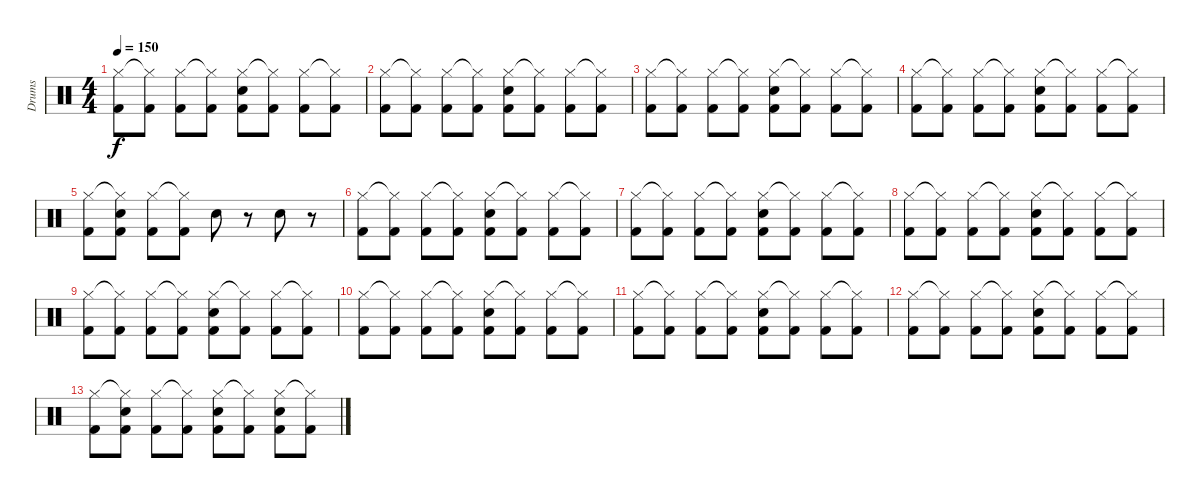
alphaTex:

\track ("Drums" "Drums") {instrument percussion}
\staff {score}
\articulation defaults
\ts (4 4)
\tempo 150
\clef neutral
\ks c
("Hi-Hat (closed)" "Kick (hit) 2").8{dy f} ("Hi-Hat (closed)"{t} "Kick (hit) 2").8 ("Hi-Hat (closed)" "Kick (hit) 2").8 ("Hi-Hat (closed)"{t} "Kick (hit) 2").8 ("Hi-Hat (closed)" "Kick (hit) 2" "Snare (hit) 2").8 ("Hi-Hat (closed)"{t} "Kick (hit) 2").8 ("Hi-Hat (closed)" "Kick (hit) 2").8 ("Hi-Hat (closed)"{t} "Kick (hit) 2").8 |
("Hi-Hat (closed)" "Kick (hit) 2").8 ("Hi-Hat (closed)"{t} "Kick (hit) 2").8 ("Hi-Hat (closed)" "Kick (hit) 2").8 ("Hi-Hat (closed)"{t} "Kick (hit) 2").8 ("Hi-Hat (closed)" "Kick (hit) 2" "Snare (hit) 2").8 ("Hi-Hat (closed)"{t} "Kick (hit) 2").8 ("Hi-Hat (closed)" "Kick (hit) 2").8 ("Hi-Hat (closed)"{t} "Kick (hit) 2").8 |
("Hi-Hat (closed)" "Kick (hit) 2").8 ("Hi-Hat (closed)"{t} "Kick (hit) 2").8 ("Hi-Hat (closed)" "Kick (hit) 2").8 ("Hi-Hat (closed)"{t} "Kick (hit) 2").8 ("Hi-Hat (closed)" "Kick (hit) 2" "Snare (hit) 2").8 ("Hi-Hat (closed)"{t} "Kick (hit) 2").8 ("Hi-Hat (closed)" "Kick (hit) 2").8 ("Hi-Hat (closed)"{t} "Kick (hit) 2").8 |
("Hi-Hat (closed)" "Kick (hit) 2").8 ("Hi-Hat (closed)"{t} "Kick (hit) 2").8 ("Hi-Hat (closed)" "Kick (hit) 2").8 ("Hi-Hat (closed)"{t} "Kick (hit) 2").8 ("Hi-Hat (closed)" "Kick (hit) 2" "Snare (hit) 2").8 ("Hi-Hat (closed)"{t} "Kick (hit) 2").8 ("Hi-Hat (closed)" "Kick (hit) 2").8 ("Hi-Hat (closed)"{t} "Kick (hit) 2").8 |
("Hi-Hat (closed)" "Kick (hit) 2").8 ("Hi-Hat (closed)"{t} "Kick (hit) 2" "Snare (hit) 2").8 ("Hi-Hat (closed)" "Kick (hit) 2").8 ("Hi-Hat (closed)"{t} "Kick (hit) 2").8 "Snare (hit) 2".8 r.8 "Snare (hit) 2".8 r.8 |
("Hi-Hat (closed)" "Kick (hit) 2").8 ("Hi-Hat (closed)"{t} "Kick (hit) 2").8 ("Hi-Hat (closed)" "Kick (hit) 2").8 ("Hi-Hat (closed)"{t} "Kick (hit) 2").8 ("Hi-Hat (closed)" "Kick (hit) 2" "Snare (hit) 2").8 ("Hi-Hat (closed)"{t} "Kick (hit) 2").8 ("Hi-Hat (closed)" "Kick (hit) 2").8 ("Hi-Hat (closed)"{t} "Kick (hit) 2").8 |
("Hi-Hat (closed)" "Kick (hit) 2").8 ("Hi-Hat (closed)"{t} "Kick (hit) 2").8 ("Hi-Hat (closed)" "Kick (hit) 2").8 ("Hi-Hat (closed)"{t} "Kick (hit) 2").8 ("Hi-Hat (closed)" "Kick (hit) 2" "Snare (hit) 2").8 ("Hi-Hat (closed)"{t} "Kick (hit) 2").8 ("Hi-Hat (closed)" "Kick (hit) 2").8 ("Hi-Hat (closed)"{t} "Kick (hit) 2").8 |
("Hi-Hat (closed)" "Kick (hit) 2").8 ("Hi-Hat (closed)"{t} "Kick (hit) 2").8 ("Hi-Hat (closed)" "Kick (hit) 2").8 ("Hi-Hat (closed)"{t} "Kick (hit) 2").8 ("Hi-Hat (closed)" "Kick (hit) 2" "Snare (hit) 2").8 ("Hi-Hat (closed)"{t} "Kick (hit) 2").8 ("Hi-Hat (closed)" "Kick (hit) 2").8 ("Hi-Hat (closed)"{t} "Kick (hit) 2").8 |
("Hi-Hat (closed)" "Kick (hit) 2").8 ("Hi-Hat (closed)"{t} "Kick (hit) 2").8 ("Hi-Hat (closed)" "Kick (hit) 2").8 ("Hi-Hat (closed)"{t} "Kick (hit) 2").8 ("Hi-Hat (closed)" "Kick (hit) 2" "Snare (hit) 2").8 ("Hi-Hat (closed)"{t} "Kick (hit) 2").8 ("Hi-Hat (closed)" "Kick (hit) 2").8 ("Hi-Hat (closed)"{t} "Kick (hit) 2").8 |
("Hi-Hat (closed)" "Kick (hit) 2").8 ("Hi-Hat (closed)"{t} "Kick (hit) 2").8 ("Hi-Hat (closed)" "Kick (hit) 2").8 ("Hi-Hat (closed)"{t} "Kick (hit) 2").8 ("Hi-Hat (closed)" "Kick (hit) 2" "Snare (hit) 2").8 ("Hi-Hat (closed)"{t} "Kick (hit) 2").8 ("Hi-Hat (closed)" "Kick (hit) 2").8 ("Hi-Hat (closed)"{t} "Kick (hit) 2").8 |
("Hi-Hat (closed)" "Kick (hit) 2").8 ("Hi-Hat (closed)"{t} "Kick (hit) 2").8 ("Hi-Hat (closed)" "Kick (hit) 2").8 ("Hi-Hat (closed)"{t} "Kick (hit) 2").8 ("Hi-Hat (closed)" "Kick (hit) 2" "Snare (hit) 2").8 ("Hi-Hat (closed)"{t} "Kick (hit) 2").8 ("Hi-Hat (closed)" "Kick (hit) 2").8 ("Hi-Hat (closed)"{t} "Kick (hit) 2").8 |
("Hi-Hat (closed)" "Kick (hit) 2").8 ("Hi-Hat (closed)"{t} "Kick (hit) 2").8 ("Hi-Hat (closed)" "Kick (hit) 2").8 ("Hi-Hat (closed)"{t} "Kick (hit) 2").8 ("Hi-Hat (closed)" "Kick (hit) 2" "Snare (hit) 2").8 ("Hi-Hat (closed)"{t} "Kick (hit) 2").8 ("Hi-Hat (closed)" "Kick (hit) 2").8 ("Hi-Hat (closed)"{t} "Kick (hit) 2").8 |
("Hi-Hat (closed)" "Kick (hit) 2").8 ("Hi-Hat (closed)"{t} "Kick (hit) 2" "Snare (hit) 2").8 ("Hi-Hat (closed)" "Kick (hit) 2").8 ("Hi-Hat (closed)"{t} "Kick (hit) 2").8 ("Hi-Hat (closed)" "Kick (hit) 2" "Snare (hit) 2").8 ("Hi-Hat (closed)"{t} "Kick (hit) 2").8 ("Hi-Hat (closed)" "Kick (hit) 2" "Snare (hit) 2").8 ("Hi-Hat (closed)"{t} "Kick (hit) 2").8
